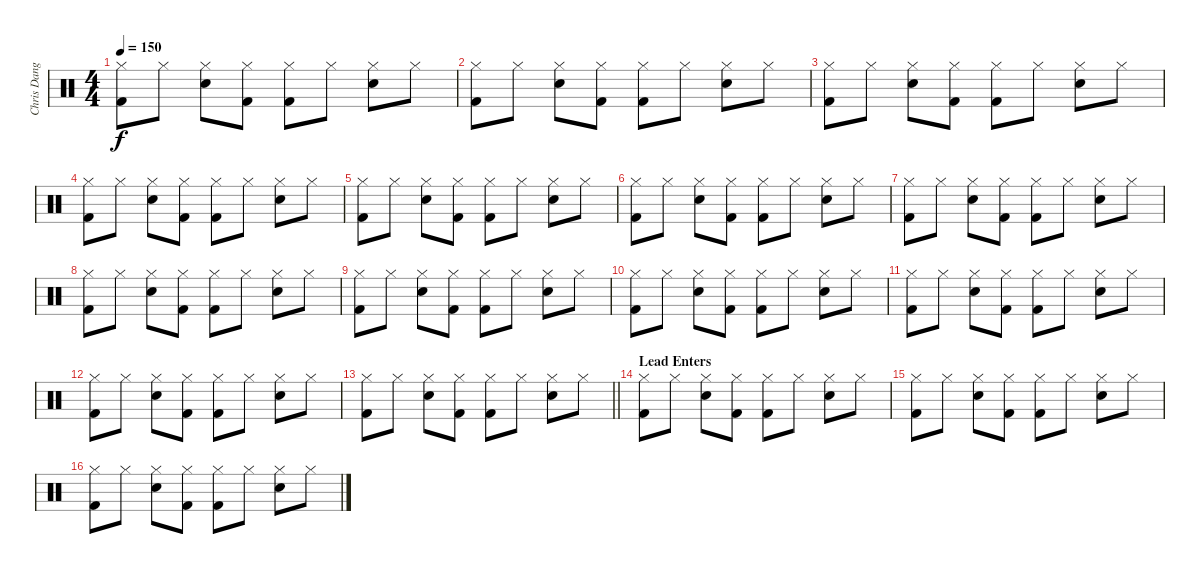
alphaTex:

\track ("Chris Dangerous" "Chris Dang") {instrument percussion}
\staff {score}
\articulation defaults
\ts (4 4)
\tempo 150
\clef neutral
\ks c
("Hi-Hat (closed)" "Kick (hit) 2").8{dy f} "Hi-Hat (closed)".8 ("Hi-Hat (closed)" "Snare (hit) 2").8 ("Hi-Hat (closed)" "Kick (hit) 2").8 ("Hi-Hat (closed)" "Kick (hit) 2").8 "Hi-Hat (closed)".8 ("Hi-Hat (closed)" "Snare (hit) 2").8 "Hi-Hat (closed)".8 |
("Hi-Hat (closed)" "Kick (hit) 2").8 "Hi-Hat (closed)".8 ("Hi-Hat (closed)" "Snare (hit) 2").8 ("Hi-Hat (closed)" "Kick (hit) 2").8 ("Hi-Hat (closed)" "Kick (hit) 2").8 "Hi-Hat (closed)".8 ("Hi-Hat (closed)" "Snare (hit) 2").8 "Hi-Hat (closed)".8 |
("Hi-Hat (closed)" "Kick (hit) 2").8 "Hi-Hat (closed)".8 ("Hi-Hat (closed)" "Snare (hit) 2").8 ("Hi-Hat (closed)" "Kick (hit) 2").8 ("Hi-Hat (closed)" "Kick (hit) 2").8 "Hi-Hat (closed)".8 ("Hi-Hat (closed)" "Snare (hit) 2").8 "Hi-Hat (closed)".8 |
("Hi-Hat (closed)" "Kick (hit) 2").8 "Hi-Hat (closed)".8 ("Hi-Hat (closed)" "Snare (hit) 2").8 ("Hi-Hat (closed)" "Kick (hit) 2").8 ("Hi-Hat (closed)" "Kick (hit) 2").8 "Hi-Hat (closed)".8 ("Hi-Hat (closed)" "Snare (hit) 2").8 "Hi-Hat (closed)".8 |
("Hi-Hat (closed)" "Kick (hit) 2").8 "Hi-Hat (closed)".8 ("Hi-Hat (closed)" "Snare (hit) 2").8 ("Hi-Hat (closed)" "Kick (hit) 2").8 ("Hi-Hat (closed)" "Kick (hit) 2").8 "Hi-Hat (closed)".8 ("Hi-Hat (closed)" "Snare (hit) 2").8 "Hi-Hat (closed)".8 |
("Hi-Hat (closed)" "Kick (hit) 2").8 "Hi-Hat (closed)".8 ("Hi-Hat (closed)" "Snare (hit) 2").8 ("Hi-Hat (closed)" "Kick (hit) 2").8 ("Hi-Hat (closed)" "Kick (hit) 2").8 "Hi-Hat (closed)".8 ("Hi-Hat (closed)" "Snare (hit) 2").8 "Hi-Hat (closed)".8 |
("Hi-Hat (closed)" "Kick (hit) 2").8 "Hi-Hat (closed)".8 ("Hi-Hat (closed)" "Snare (hit) 2").8 ("Hi-Hat (closed)" "Kick (hit) 2").8 ("Hi-Hat (closed)" "Kick (hit) 2").8 "Hi-Hat (closed)".8 ("Hi-Hat (closed)" "Snare (hit) 2").8 "Hi-Hat (closed)".8 |
("Hi-Hat (closed)" "Kick (hit) 2").8 "Hi-Hat (closed)".8 ("Hi-Hat (closed)" "Snare (hit) 2").8 ("Hi-Hat (closed)" "Kick (hit) 2").8 ("Hi-Hat (closed)" "Kick (hit) 2").8 "Hi-Hat (closed)".8 ("Hi-Hat (closed)" "Snare (hit) 2").8 "Hi-Hat (closed)".8 |
("Hi-Hat (closed)" "Kick (hit) 2").8 "Hi-Hat (closed)".8 ("Hi-Hat (closed)" "Snare (hit) 2").8 ("Hi-Hat (closed)" "Kick (hit) 2").8 ("Hi-Hat (closed)" "Kick (hit) 2").8 "Hi-Hat (closed)".8 ("Hi-Hat (closed)" "Snare (hit) 2").8 "Hi-Hat (closed)".8 |
("Hi-Hat (closed)" "Kick (hit) 2").8 "Hi-Hat (closed)".8 ("Hi-Hat (closed)" "Snare (hit) 2").8 ("Hi-Hat (closed)" "Kick (hit) 2").8 ("Hi-Hat (closed)" "Kick (hit) 2").8 "Hi-Hat (closed)".8 ("Hi-Hat (closed)" "Snare (hit) 2").8 "Hi-Hat (closed)".8 |
("Hi-Hat (closed)" "Kick (hit) 2").8 "Hi-Hat (closed)".8 ("Hi-Hat (closed)" "Snare (hit) 2").8 ("Hi-Hat (closed)" "Kick (hit) 2").8 ("Hi-Hat (closed)" "Kick (hit) 2").8 "Hi-Hat (closed)".8 ("Hi-Hat (closed)" "Snare (hit) 2").8 "Hi-Hat (closed)".8 |
("Hi-Hat (closed)" "Kick (hit) 2").8 "Hi-Hat (closed)".8 ("Hi-Hat (closed)" "Snare (hit) 2").8 ("Hi-Hat (closed)" "Kick (hit) 2").8 ("Hi-Hat (closed)" "Kick (hit) 2").8 "Hi-Hat (closed)".8 ("Hi-Hat (closed)" "Snare (hit) 2").8 "Hi-Hat (closed)".8 |
\barLineRight lightlight
("Hi-Hat (closed)" "Kick (hit) 2").8 "Hi-Hat (closed)".8 ("Hi-Hat (closed)" "Snare (hit) 2").8 ("Hi-Hat (closed)" "Kick (hit) 2").8 ("Hi-Hat (closed)" "Kick (hit) 2").8 "Hi-Hat (closed)".8 ("Hi-Hat (closed)" "Snare (hit) 2").8 "Hi-Hat (closed)".8 |
\section ("" "Lead Enters")
("Hi-Hat (closed)" "Kick (hit) 2").8 "Hi-Hat (closed)".8 ("Hi-Hat (closed)" "Snare (hit) 2").8 ("Hi-Hat (closed)" "Kick (hit) 2").8 ("Hi-Hat (closed)" "Kick (hit) 2").8 "Hi-Hat (closed)".8 ("Hi-Hat (closed)" "Snare (hit) 2").8 "Hi-Hat (closed)".8 |
("Hi-Hat (closed)" "Kick (hit) 2").8 "Hi-Hat (closed)".8 ("Hi-Hat (closed)" "Snare (hit) 2").8 ("Hi-Hat (closed)" "Kick (hit) 2").8 ("Hi-Hat (closed)" "Kick (hit) 2").8 "Hi-Hat (closed)".8 ("Hi-Hat (closed)" "Snare (hit) 2").8 "Hi-Hat (closed)".8 |
("Hi-Hat (closed)" "Kick (hit) 2").8 "Hi-Hat (closed)".8 ("Hi-Hat (closed)" "Snare (hit) 2").8 ("Hi-Hat (closed)" "Kick (hit) 2").8 ("Hi-Hat (closed)" "Kick (hit) 2").8 "Hi-Hat (closed)".8 ("Hi-Hat (closed)" "Snare (hit) 2").8 "Hi-Hat (closed)".8
